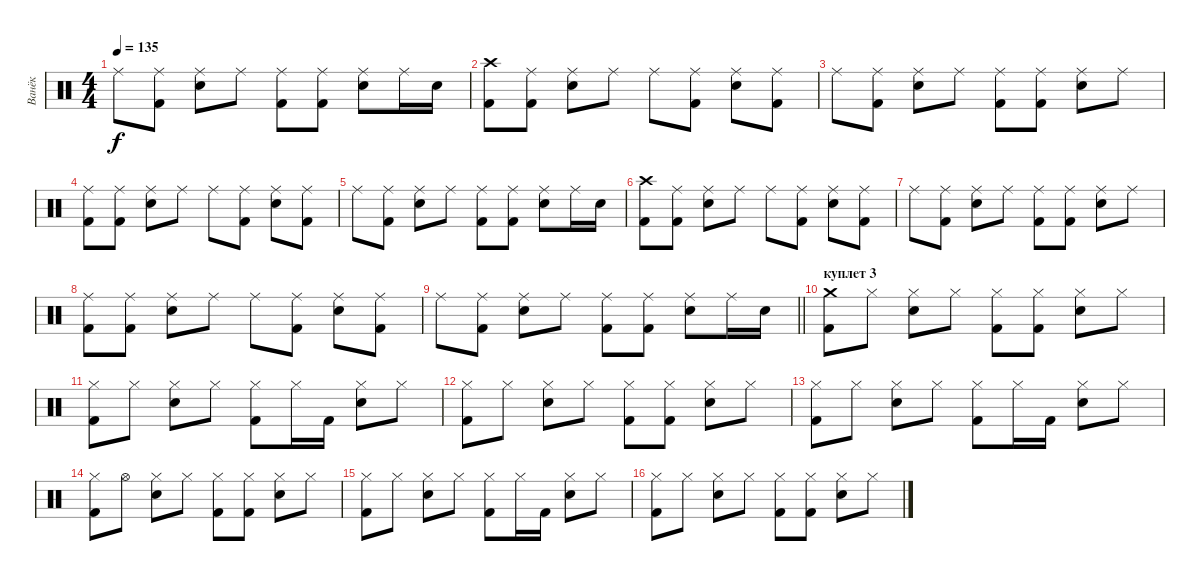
\track ("Ванёк" "Ванёк") {instrument percussion}
\staff {score}
\articulation defaults
\ts (4 4)
\tempo 135
\clef neutral
\ks c "Ride (middle)".8{dy f}
("Ride (middle)" "Kick (hit) 2").8 ("Ride (middle)" "Snare (hit) 2").8 "Ride (middle)".8 ("Ride (middle)" "Kick (hit) 2").8 ("Ride (middle)" "Kick (hit) 2").8 ("Ride (middle)" "Snare (hit) 2").8 "Ride (middle)".16 "Snare (hit) 2".16 |
("Crash high (hit)" "Kick (hit) 2").8 ("Ride (middle)" "Kick (hit) 2").8 ("Ride (middle)" "Snare (hit) 2").8 "Ride (middle)".8 "Ride (middle)".8 ("Ride (middle)" "Kick (hit) 2").8 ("Ride (middle)" "Snare (hit) 2").8 ("Ride (middle)" "Kick (hit) 2").8 |
"Ride (middle)".8 ("Ride (middle)" "Kick (hit) 2").8 ("Ride (middle)" "Snare (hit) 2").8 "Ride (middle)".8 ("Ride (middle)" "Kick (hit) 2").8 ("Ride (middle)" "Kick (hit) 2").8 ("Ride (middle)" "Snare (hit) 2").8 "Ride (middle)".8 |
("Ride (middle)" "Kick (hit) 2").8 ("Ride (middle)" "Kick (hit) 2").8 ("Ride (middle)" "Snare (hit) 2").8 "Ride (middle)".8 "Ride (middle)".8 ("Ride (middle)" "Kick (hit) 2").8 ("Ride (middle)" "Snare (hit) 2").8 ("Ride (middle)" "Kick (hit) 2").8 |
"Ride (middle)".8 ("Ride (middle)" "Kick (hit) 2").8 ("Ride (middle)" "Snare (hit) 2").8 "Ride (middle)".8 ("Ride (middle)" "Kick (hit) 2").8 ("Ride (middle)" "Kick (hit) 2").8 ("Ride (middle)" "Snare (hit) 2").8 "Ride (middle)".16 "Snare (hit) 2".16 |
("Crash high (hit)" "Kick (hit) 2").8 ("Ride (middle)" "Kick (hit) 2").8 ("Ride (middle)" "Snare (hit) 2").8 "Ride (middle)".8 "Ride (middle)".8 ("Ride (middle)" "Kick (hit) 2").8 ("Ride (middle)" "Snare (hit) 2").8 ("Ride (middle)" "Kick (hit) 2").8 |
"Ride (middle)".8 ("Ride (middle)" "Kick (hit) 2").8 ("Ride (middle)" "Snare (hit) 2").8 "Ride (middle)".8 ("Ride (middle)" "Kick (hit) 2").8 ("Ride (middle)" "Kick (hit) 2").8 ("Ride (middle)" "Snare (hit) 2").8 "Ride (middle)".8 |
("Ride (middle)" "Kick (hit) 2").8 ("Ride (middle)" "Kick (hit) 2").8 ("Ride (middle)" "Snare (hit) 2").8 "Ride (middle)".8 "Ride (middle)".8 ("Ride (middle)" "Kick (hit) 2").8 ("Ride (middle)" "Snare (hit) 2").8 ("Ride (middle)" "Kick (hit) 2").8 |
\barLineRight lightlight "Ride (middle)".8
("Ride (middle)" "Kick (hit) 2").8 ("Ride (middle)" "Snare (hit) 2").8 "Ride (middle)".8 ("Ride (middle)" "Kick (hit) 2").8 ("Ride (middle)" "Kick (hit) 2").8 ("Ride (middle)" "Snare (hit) 2").8 "Ride (middle)".16 "Snare (hit) 2".16 |
\section ("" "куплет 3")
("Crash medium (hit)" "Kick (hit) 2").8 "Hi-Hat (closed)".8 ("Hi-Hat (closed)" "Snare (hit) 2").8 "Hi-Hat (closed)".8 ("Hi-Hat (closed)" "Kick (hit) 2").8 ("Hi-Hat (closed)" "Kick (hit) 2").8 ("Hi-Hat (closed)" "Snare (hit) 2").8 "Hi-Hat (closed)".8 |
("Hi-Hat (closed)" "Kick (hit) 2").8 "Hi-Hat (closed)".8 ("Hi-Hat (closed)" "Snare (hit) 2").8 "Hi-Hat (closed)".8 ("Hi-Hat (closed)" "Kick (hit) 2").8 "Hi-Hat (closed)".16 "Kick (hit) 2".16 ("Hi-Hat (closed)" "Snare (hit) 2").8 "Hi-Hat (closed)".8 |
("Hi-Hat (closed)" "Kick (hit) 2").8 "Hi-Hat (closed)".8 ("Hi-Hat (closed)" "Snare (hit) 2").8 "Hi-Hat (closed)".8 ("Hi-Hat (closed)" "Kick (hit) 2").8 ("Hi-Hat (closed)" "Kick (hit) 2").8 ("Hi-Hat (closed)" "Snare (hit) 2").8 "Hi-Hat (closed)".8 |
("Hi-Hat (closed)" "Kick (hit) 2").8 "Hi-Hat (closed)".8 ("Hi-Hat (closed)" "Snare (hit) 2").8 "Hi-Hat (closed)".8 ("Hi-Hat (closed)" "Kick (hit) 2").8 "Hi-Hat (closed)".16 "Kick (hit) 2".16 ("Hi-Hat (closed)" "Snare (hit) 2").8 "Hi-Hat (closed)".8 |
("Hi-Hat (closed)" "Kick (hit) 2").8 "Hi-Hat (open)".8 ("Hi-Hat (closed)" "Snare (hit) 2").8 "Hi-Hat (closed)".8 ("Hi-Hat (closed)" "Kick (hit) 2").8 ("Hi-Hat (closed)" "Kick (hit) 2").8 ("Hi-Hat (closed)" "Snare (hit) 2").8 "Hi-Hat (closed)".8 |
("Hi-Hat (closed)" "Kick (hit) 2").8 "Hi-Hat (closed)".8 ("Hi-Hat (closed)" "Snare (hit) 2").8 "Hi-Hat (closed)".8 ("Hi-Hat (closed)" "Kick (hit) 2").8 "Hi-Hat (closed)".16 "Kick (hit) 2".16 ("Hi-Hat (closed)" "Snare (hit) 2").8 "Hi-Hat (closed)".8 |
("Hi-Hat (closed)" "Kick (hit) 2").8 "Hi-Hat (closed)".8 ("Hi-Hat (closed)" "Snare (hit) 2").8 "Hi-Hat (closed)".8 ("Hi-Hat (closed)" "Kick (hit) 2").8 ("Hi-Hat (closed)" "Kick (hit) 2").8 ("Hi-Hat (closed)" "Snare (hit) 2").8 "Hi-Hat (closed)".8
